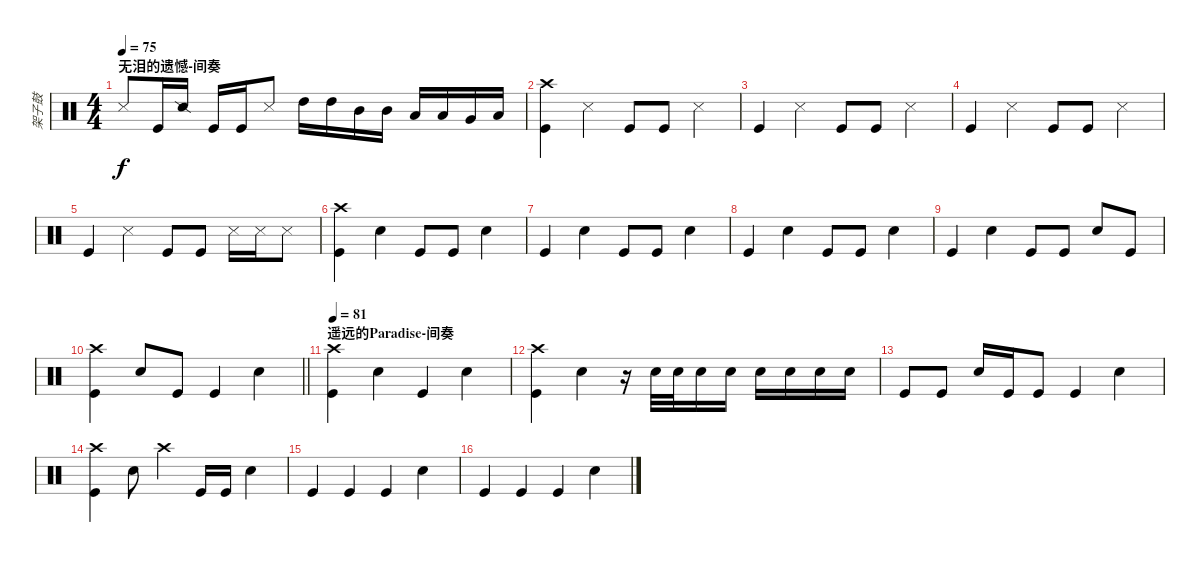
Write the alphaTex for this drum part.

\track ("架子鼓" "架子鼓") {instrument percussion}
\staff {score}
\articulation defaults
\ts (4 4)
\section ("" "无泪的遗憾-间奏")
\tempo 75
\clef neutral
\ks c "Snare (side stick) 3".8{dy f} "Kick (hit)".16 "Snare (side stick) 2".16 "Kick (hit)".16 "Kick (hit)".16 "Snare (side stick) 3".8 "High Tom (hit)".16 "High Tom (hit)".16 "Mid Tom (hit)".16 "Mid Tom (hit)".16 "Low Tom (hit)".16 "Low Tom (hit)".16 "Very Low Tom (hit)".16 "Low Floor Tom (hit)".16
|
("Crash high (hit)" "Kick (hit)").4 "Snare (side stick) 3".4 "Kick (hit)".8 "Kick (hit)".8 "Snare (side stick) 3".4 |
"Kick (hit)".4 "Snare (side stick) 3".4 "Kick (hit)".8 "Kick (hit)".8 "Snare (side stick) 3".4 |
"Kick (hit)".4 "Snare (side stick) 3".4 "Kick (hit)".8 "Kick (hit)".8 "Snare (side stick) 3".4 |
"Kick (hit)".4 "Snare (side stick) 3".4 "Kick (hit)".8 "Kick (hit)".8 "Snare (side stick) 3".16 "Snare (side stick) 3".16 "Snare (side stick) 3".8 |
("Crash high (hit)" "Kick (hit)").4 "Electric Snare (hit)".4 "Kick (hit)".8 "Kick (hit)".8 "Electric Snare (hit)".4 |
"Kick (hit)".4 "Electric Snare (hit)".4 "Kick (hit)".8 "Kick (hit)".8 "Electric Snare (hit)".4 |
"Kick (hit)".4 "Electric Snare (hit)".4 "Kick (hit)".8 "Kick (hit)".8 "Electric Snare (hit)".4 |
"Kick (hit)".4 "Electric Snare (hit)".4 "Kick (hit)".8 "Kick (hit)".8 "Electric Snare (hit)".8 "Kick (hit)".8 |
\barLineRight lightlight
("Crash high (hit)" "Kick (hit)").4 "Electric Snare (hit)".8 "Kick (hit)".8 "Kick (hit)".4 "Electric Snare (hit)".4 |
\section ("" "遥远的Paradise-间奏")
\tempo 81
("Crash high (hit)" "Kick (hit)").4 "Electric Snare (hit)".4 "Kick (hit)".4 "Electric Snare (hit)".4 |
("Crash high (hit)" "Kick (hit)").4 "Electric Snare (hit)".4 r.16 "Electric Snare (hit)".32 "Electric Snare (hit)".32 "Electric Snare (hit)".16 "Electric Snare (hit)".16 "Electric Snare (hit)".16 "Electric Snare (hit)".16 "Electric Snare (hit)".16 "Electric Snare (hit)".16 |
"Kick (hit)".8 "Kick (hit)".8 "Electric Snare (hit)".16 "Kick (hit)".16 "Kick (hit)".8 "Kick (hit)".4 "Electric Snare (hit)".4 |
("Crash high (hit)" "Kick (hit)").4 "Electric Snare (hit)".8 "Crash high (hit)".4 "Kick (hit)".16 "Kick (hit)".16 "Electric Snare (hit)".4 |
"Kick (hit)".4 "Kick (hit)".4 "Kick (hit)".4 "Electric Snare (hit)".4 |
"Kick (hit)".4 "Kick (hit)".4 "Kick (hit)".4 "Electric Snare (hit)".4
